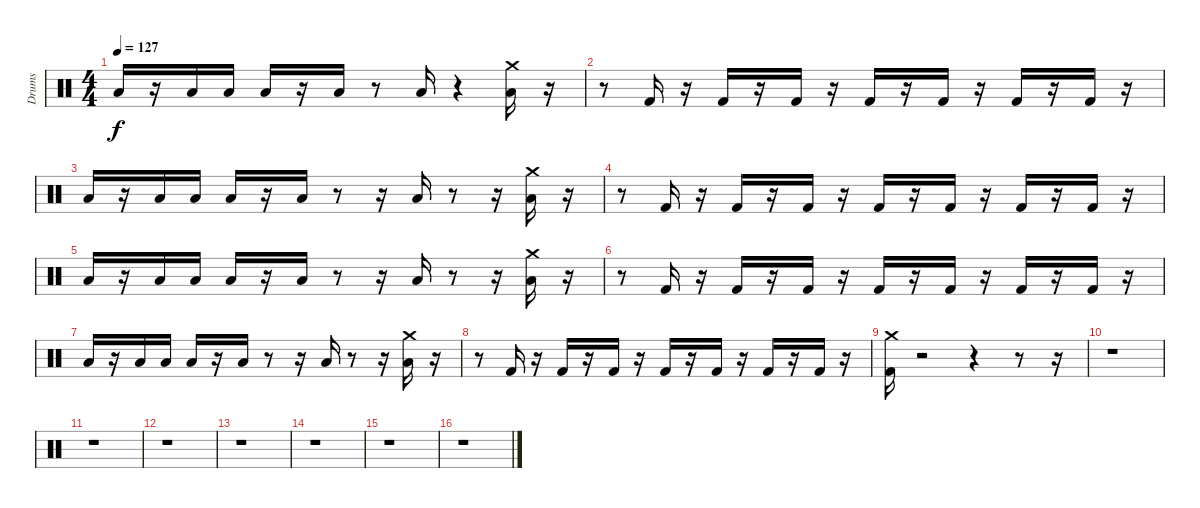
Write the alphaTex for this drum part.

\track ("Drums               " "Drums     ") {instrument percussion}
\staff {score}
\articulation defaults
\ts (4 4)
\tempo 127
\clef neutral
\ks c "Low Floor Tom (hit)".16{dy f}
r.16 "Low Floor Tom (hit)".16 "Low Floor Tom (hit)".16 "Low Floor Tom (hit)".16 r.16 "Low Floor Tom (hit)".16 r.8 "Low Floor Tom (hit)".16 r.4 ("Low Floor Tom (hit)" "Crash medium (hit)").16 r.16 |
r.8 "Kick (hit) 2".16 r.16 "Kick (hit) 2".16 r.16 "Kick (hit) 2".16 r.16 "Kick (hit) 2".16 r.16 "Kick (hit) 2".16 r.16 "Kick (hit) 2".16 r.16 "Kick (hit) 2".16 r.16 |
"Low Floor Tom (hit)".16 r.16 "Low Floor Tom (hit)".16 "Low Floor Tom (hit)".16 "Low Floor Tom (hit)".16 r.16 "Low Floor Tom (hit)".16 r.8 r.16 "Low Floor Tom (hit)".16 r.8 r.16 ("Low Floor Tom (hit)" "Crash medium (hit)").16 r.16 |
r.8 "Kick (hit) 2".16 r.16 "Kick (hit) 2".16 r.16 "Kick (hit) 2".16 r.16 "Kick (hit) 2".16 r.16 "Kick (hit) 2".16 r.16 "Kick (hit) 2".16 r.16 "Kick (hit) 2".16 r.16 |
"Low Floor Tom (hit)".16 r.16 "Low Floor Tom (hit)".16 "Low Floor Tom (hit)".16 "Low Floor Tom (hit)".16 r.16 "Low Floor Tom (hit)".16 r.8 r.16 "Low Floor Tom (hit)".16 r.8 r.16 ("Low Floor Tom (hit)" "Crash medium (hit)").16 r.16 |
r.8 "Kick (hit) 2".16 r.16 "Kick (hit) 2".16 r.16 "Kick (hit) 2".16 r.16 "Kick (hit) 2".16 r.16 "Kick (hit) 2".16 r.16 "Kick (hit) 2".16 r.16 "Kick (hit) 2".16 r.16 |
"Low Floor Tom (hit)".16 r.16 "Low Floor Tom (hit)".16 "Low Floor Tom (hit)".16 "Low Floor Tom (hit)".16 r.16 "Low Floor Tom (hit)".16 r.8 r.16 "Low Floor Tom (hit)".16 r.8 r.16 ("Low Floor Tom (hit)" "Crash medium (hit)").16 r.16 |
r.8 "Kick (hit) 2".16 r.16 "Kick (hit) 2".16 r.16 "Kick (hit) 2".16 r.16 "Kick (hit) 2".16 r.16 "Kick (hit) 2".16 r.16 "Kick (hit) 2".16 r.16 "Kick (hit) 2".16 r.16 |
("Kick (hit) 2" "Crash medium (hit)").16 r.2 r.4 r.8 r.16 |
r.1 |
r.1 |
r.1 |
r.1 |
r.1 |
r.1 |
r.1
